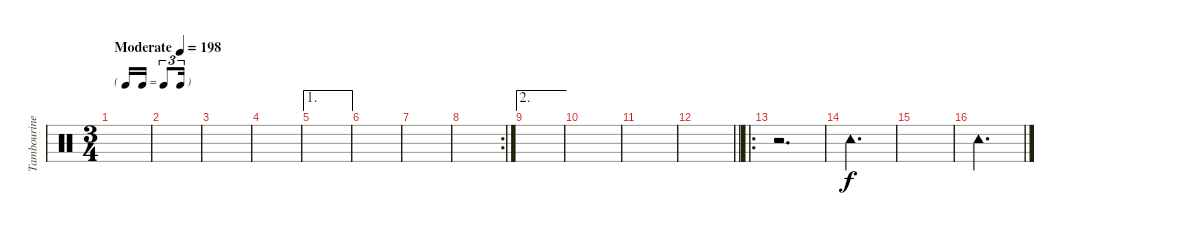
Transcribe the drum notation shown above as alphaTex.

\track ("Tambourine" "Tambourine") {instrument percussion}
\staff {score}
\articulation defaults
\ts (3 4)
\tf triplet16th
\tempo (198 "Moderate")
\clef neutral
\ks c
|
|
|
|
\ae 1
|
|
|
\rc 2
|
\ae 2
|
|
|
\barLineRight lightlight
|
\ro
r.2{d} |
"Tambourine (hit)".2{d} |
|
"Tambourine (hit)".2{d}
